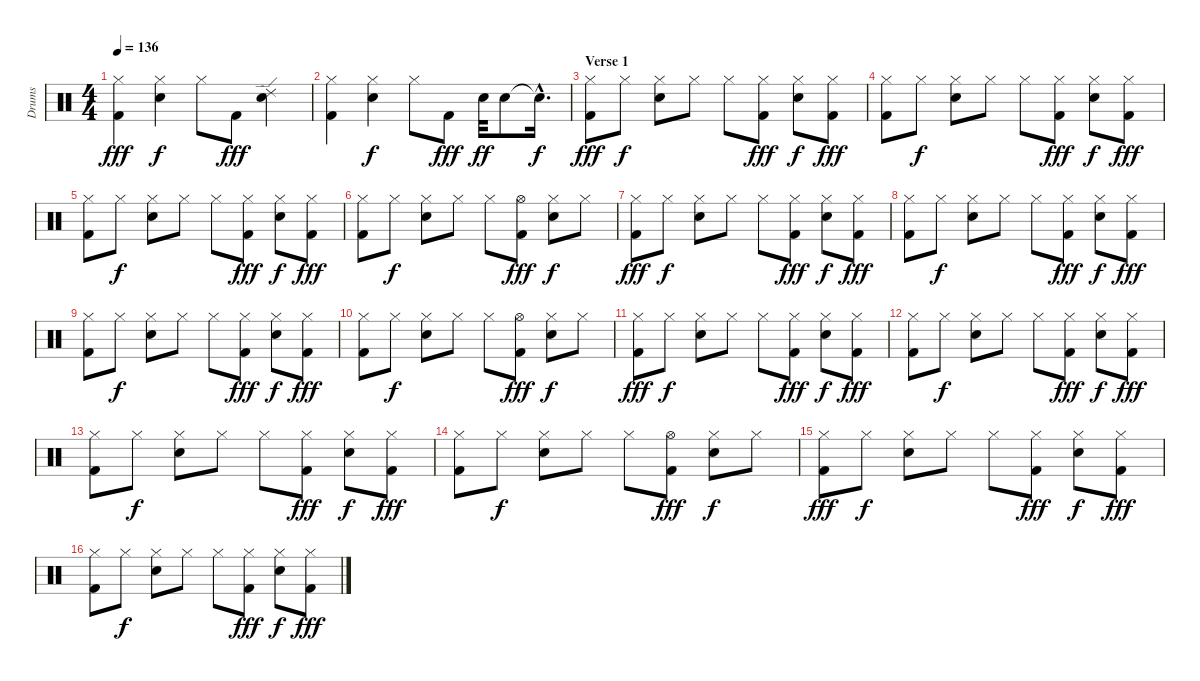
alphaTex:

\track ("Drums" "Drums") {instrument percussion}
\staff {score}
\articulation defaults
\ts (4 4)
\tempo 136
\clef neutral
\ks c
("Hi-Hat (closed)" "Kick (hit) 2").4{txt " " dy fff} ("Hi-Hat (closed)" "Snare (hit) 2").4{dy f} "Hi-Hat (closed)".8 "Kick (hit) 2".8{dy fff} ("Ride (edge) 2" "Snare (hit) 2").4 |
("Hi-Hat (closed)" "Kick (hit) 2").4{txt " "} ("Hi-Hat (closed)" "Snare (hit) 2").4{dy f} "Hi-Hat (closed)".8 "Kick (hit) 2".8{dy fff} "Snare (hit) 2".32{dy ff} "Snare (hit) 2".8 "Snare (hit)"{hac t}.16{d dy f} |
\section ("" "Verse 1")
("Hi-Hat (closed)" "Kick (hit) 2").8{txt " " dy fff} "Hi-Hat (closed)".8{dy f} ("Hi-Hat (closed)" "Snare (hit) 2").8 "Hi-Hat (closed)".8 "Hi-Hat (closed)".8 ("Hi-Hat (closed)" "Kick (hit) 2").8{dy fff} ("Hi-Hat (closed)" "Snare (hit) 2").8{dy f} ("Hi-Hat (closed)" "Kick (hit) 2").8{dy fff} |
("Hi-Hat (closed)" "Kick (hit) 2").8{txt " "} "Hi-Hat (closed)".8{dy f} ("Hi-Hat (closed)" "Snare (hit) 2").8 "Hi-Hat (closed)".8 "Hi-Hat (closed)".8 ("Hi-Hat (closed)" "Kick (hit) 2").8{dy fff} ("Hi-Hat (closed)" "Snare (hit) 2").8{dy f} ("Hi-Hat (closed)" "Kick (hit) 2").8{dy fff} |
("Hi-Hat (closed)" "Kick (hit) 2").8{txt " "} "Hi-Hat (closed)".8{dy f} ("Hi-Hat (closed)" "Snare (hit) 2").8 "Hi-Hat (closed)".8 "Hi-Hat (closed)".8 ("Hi-Hat (closed)" "Kick (hit) 2").8{dy fff} ("Hi-Hat (closed)" "Snare (hit) 2").8{dy f} ("Hi-Hat (closed)" "Kick (hit) 2").8{dy fff} |
("Hi-Hat (closed)" "Kick (hit) 2").8{txt " "} "Hi-Hat (closed)".8{dy f} ("Hi-Hat (closed)" "Snare (hit) 2").8 "Hi-Hat (closed)".8 "Hi-Hat (closed)".8 ("Hi-Hat (open)" "Kick (hit) 2").8{dy fff} ("Hi-Hat (closed)" "Snare (hit) 2").8{dy f} "Hi-Hat (closed)".8 |
("Hi-Hat (closed)" "Kick (hit) 2").8{txt " " dy fff} "Hi-Hat (closed)".8{dy f} ("Hi-Hat (closed)" "Snare (hit) 2").8 "Hi-Hat (closed)".8 "Hi-Hat (closed)".8 ("Hi-Hat (closed)" "Kick (hit) 2").8{dy fff} ("Hi-Hat (closed)" "Snare (hit) 2").8{dy f} ("Hi-Hat (closed)" "Kick (hit) 2").8{dy fff} |
("Hi-Hat (closed)" "Kick (hit) 2").8{txt " "} "Hi-Hat (closed)".8{dy f} ("Hi-Hat (closed)" "Snare (hit) 2").8 "Hi-Hat (closed)".8 "Hi-Hat (closed)".8 ("Hi-Hat (closed)" "Kick (hit) 2").8{dy fff} ("Hi-Hat (closed)" "Snare (hit) 2").8{dy f} ("Hi-Hat (closed)" "Kick (hit) 2").8{dy fff} |
("Hi-Hat (closed)" "Kick (hit) 2").8{txt " "} "Hi-Hat (closed)".8{dy f} ("Hi-Hat (closed)" "Snare (hit) 2").8 "Hi-Hat (closed)".8 "Hi-Hat (closed)".8 ("Hi-Hat (closed)" "Kick (hit) 2").8{dy fff} ("Hi-Hat (closed)" "Snare (hit) 2").8{dy f} ("Hi-Hat (closed)" "Kick (hit) 2").8{dy fff} |
("Hi-Hat (closed)" "Kick (hit) 2").8{txt " "} "Hi-Hat (closed)".8{dy f} ("Hi-Hat (closed)" "Snare (hit) 2").8 "Hi-Hat (closed)".8 "Hi-Hat (closed)".8 ("Hi-Hat (open)" "Kick (hit) 2").8{dy fff} ("Hi-Hat (closed)" "Snare (hit) 2").8{dy f} "Hi-Hat (closed)".8 |
("Hi-Hat (closed)" "Kick (hit) 2").8{txt " " dy fff} "Hi-Hat (closed)".8{dy f} ("Hi-Hat (closed)" "Snare (hit) 2").8 "Hi-Hat (closed)".8 "Hi-Hat (closed)".8 ("Hi-Hat (closed)" "Kick (hit) 2").8{dy fff} ("Hi-Hat (closed)" "Snare (hit) 2").8{dy f} ("Hi-Hat (closed)" "Kick (hit) 2").8{dy fff} |
("Hi-Hat (closed)" "Kick (hit) 2").8{txt " "} "Hi-Hat (closed)".8{dy f} ("Hi-Hat (closed)" "Snare (hit) 2").8 "Hi-Hat (closed)".8 "Hi-Hat (closed)".8 ("Hi-Hat (closed)" "Kick (hit) 2").8{dy fff} ("Hi-Hat (closed)" "Snare (hit) 2").8{dy f} ("Hi-Hat (closed)" "Kick (hit) 2").8{dy fff} |
("Hi-Hat (closed)" "Kick (hit) 2").8{txt " "} "Hi-Hat (closed)".8{dy f} ("Hi-Hat (closed)" "Snare (hit) 2").8 "Hi-Hat (closed)".8 "Hi-Hat (closed)".8 ("Hi-Hat (closed)" "Kick (hit) 2").8{dy fff} ("Hi-Hat (closed)" "Snare (hit) 2").8{dy f} ("Hi-Hat (closed)" "Kick (hit) 2").8{dy fff} |
("Hi-Hat (closed)" "Kick (hit) 2").8{txt " "} "Hi-Hat (closed)".8{dy f} ("Hi-Hat (closed)" "Snare (hit) 2").8 "Hi-Hat (closed)".8 "Hi-Hat (closed)".8 ("Hi-Hat (open)" "Kick (hit) 2").8{dy fff} ("Hi-Hat (closed)" "Snare (hit) 2").8{dy f} "Hi-Hat (closed)".8 |
("Hi-Hat (closed)" "Kick (hit) 2").8{txt " " dy fff} "Hi-Hat (closed)".8{dy f} ("Hi-Hat (closed)" "Snare (hit) 2").8 "Hi-Hat (closed)".8 "Hi-Hat (closed)".8 ("Hi-Hat (closed)" "Kick (hit) 2").8{dy fff} ("Hi-Hat (closed)" "Snare (hit) 2").8{dy f} ("Hi-Hat (closed)" "Kick (hit) 2").8{dy fff} |
("Hi-Hat (closed)" "Kick (hit) 2").8{txt " "} "Hi-Hat (closed)".8{dy f} ("Hi-Hat (closed)" "Snare (hit) 2").8 "Hi-Hat (closed)".8 "Hi-Hat (closed)".8 ("Hi-Hat (closed)" "Kick (hit) 2").8{dy fff} ("Hi-Hat (closed)" "Snare (hit) 2").8{dy f} ("Hi-Hat (closed)" "Kick (hit) 2").8{dy fff}
